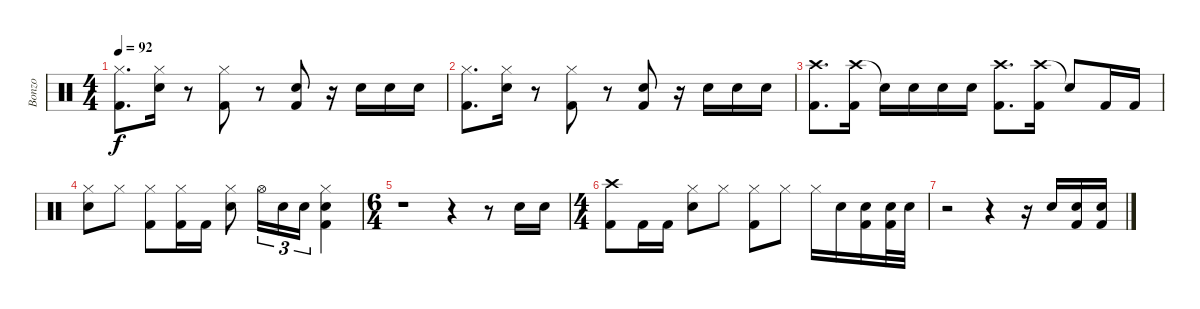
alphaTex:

\track ("Bonzo" "Bonzo") {instrument percussion}
\staff {score}
\articulation defaults
\ts (4 4)
\tempo 92
\clef neutral
\ks c
("Hi-Hat (closed)" "Kick (hit) 2").8{d dy f} ("Hi-Hat (closed)" "Snare (hit) 2").16 r.8 ("Hi-Hat (closed)" "Kick (hit) 2").8 r.8 ("Snare (hit) 2" "Kick (hit) 2").8 r.16 "Snare (hit) 2".16 "Snare (hit) 2".16 "Snare (hit) 2".16 |
("Hi-Hat (closed)" "Kick (hit) 2").8{d} ("Hi-Hat (closed)" "Snare (hit) 2").16 r.8 ("Hi-Hat (closed)" "Kick (hit) 2").8 r.8 ("Snare (hit) 2" "Kick (hit) 2").8 r.16 "Snare (hit) 2".16 "Snare (hit) 2".16 "Snare (hit) 2".16 |
("Crash high (hit)" "Kick (hit) 2").8{d} ("Crash high (hit)" "Kick (hit) 2").16 "Snare (hit)"{t}.16 "Snare (hit) 2".16 "Snare (hit) 2".16 "Snare (hit) 2".16 ("Crash high (hit)" "Kick (hit) 2").8{d} ("Crash high (hit)" "Kick (hit) 2").16 "Snare (hit)"{t}.8 "Kick (hit) 2".16 "Kick (hit) 2".16 |
("Hi-Hat (closed)" "Snare (hit) 2").8 "Hi-Hat (closed)".8 ("Hi-Hat (closed)" "Kick (hit) 2").8 ("Hi-Hat (closed)" "Kick (hit) 2").16 "Kick (hit) 2".16 ("Hi-Hat (closed)" "Snare (hit) 2").8 "Hi-Hat (open)".16{tu (3 2)} "Snare (hit) 2".16{tu (3 2)} "Snare (hit) 2".16{tu (3 2)} ("Hi-Hat (closed)" "Snare (hit) 2" "Kick (hit) 2").4 |
\ts (6 4)
r.1 r.4 r.8 "Snare (hit) 2".16 "Snare (hit) 2".16 |
\ts (4 4)
("Crash high (hit)" "Kick (hit) 2").8 "Kick (hit) 2".16 "Kick (hit) 2".16 ("Hi-Hat (closed)" "Snare (hit) 2").8 "Hi-Hat (closed)".8 ("Hi-Hat (closed)" "Kick (hit) 2").8 "Hi-Hat (closed)".8 "Hi-Hat (closed)".16 "Snare (hit) 2".16 ("Snare (hit) 2" "Kick (hit) 2").16 ("Snare (hit) 2" "Kick (hit) 2").32 "Snare (hit) 2".32 |
r.2 r.4 r.16 "Snare (hit) 2".16 ("Snare (hit) 2" "Kick (hit) 2").16 ("Snare (hit) 2" "Kick (hit) 2").16
